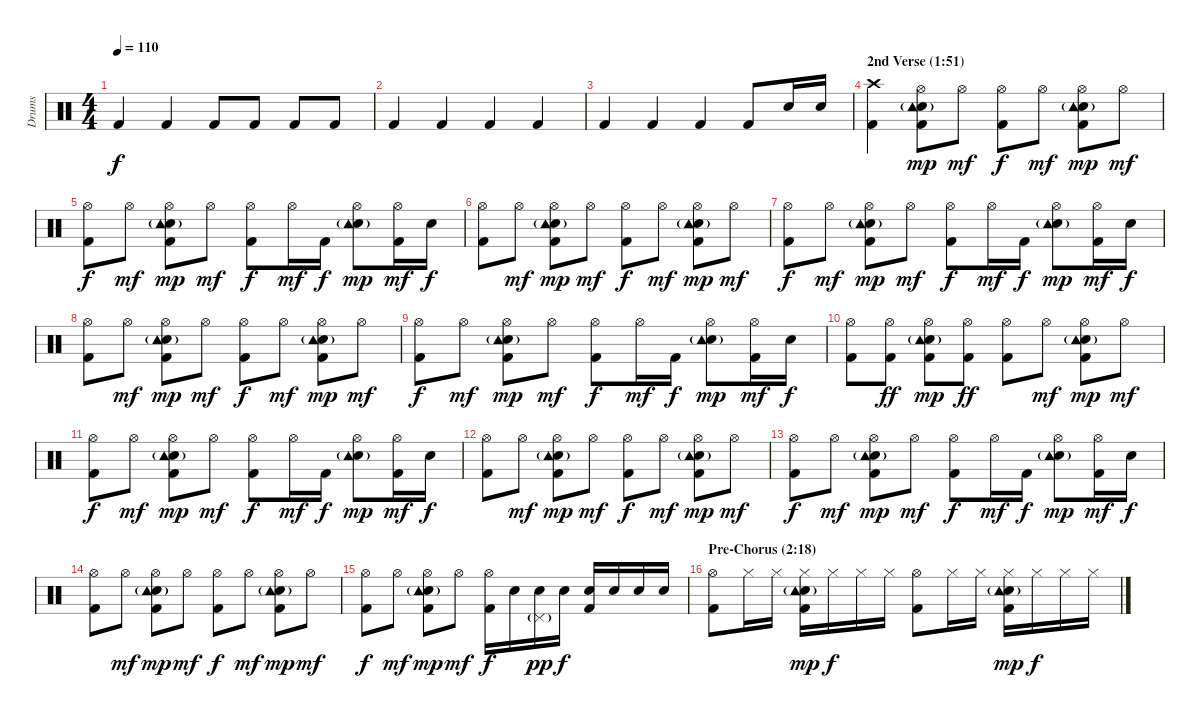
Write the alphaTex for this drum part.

\track ("Drums" "Drums") {instrument percussion}
\staff {score}
\articulation defaults
\ts (4 4)
\tempo 110
\clef neutral
\ks c "Kick (hit) 2".4{dy f} "Kick (hit) 2".4 "Kick (hit) 2".8 "Kick (hit) 2".8 "Kick (hit) 2".8 "Kick (hit) 2".8
|
"Kick (hit) 2".4 "Kick (hit) 2".4 "Kick (hit) 2".4 "Kick (hit) 2".4 |
"Kick (hit) 2".4 "Kick (hit) 2".4 "Kick (hit) 2".4 "Kick (hit) 2".8 "Snare (hit) 2".16 "Snare (hit) 2".16 |
\section ("" "2nd Verse (1:51)")
("Crash high (hit)" "Kick (hit) 2").4 ("Hi-Hat (open)" "Snare (hit) 2" "Tambourine (hit)"{g} "Kick (hit) 2").8{dy mp} "Hi-Hat (open)".8{dy mf} ("Hi-Hat (open)" "Kick (hit) 2").8{dy f} "Hi-Hat (open)".8{dy mf} ("Hi-Hat (open)" "Snare (hit) 2" "Tambourine (hit)"{g} "Kick (hit) 2").8{dy mp} "Hi-Hat (open)".8{dy mf} |
("Hi-Hat (open)" "Kick (hit) 2").8{dy f} "Hi-Hat (open)".8{dy mf} ("Hi-Hat (open)" "Snare (hit) 2" "Tambourine (hit)"{g} "Kick (hit) 2").8{dy mp} "Hi-Hat (open)".8{dy mf} ("Hi-Hat (open)" "Kick (hit) 2").8{dy f} "Hi-Hat (open)".16{dy mf} "Kick (hit) 2".16{dy f} ("Hi-Hat (open)" "Snare (hit) 2" "Tambourine (hit)"{g}).8{dy mp} ("Hi-Hat (open)" "Kick (hit) 2").16{dy mf} "Snare (hit) 2".16{dy f} |
("Hi-Hat (open)" "Kick (hit) 2").8 "Hi-Hat (open)".8{dy mf} ("Hi-Hat (open)" "Snare (hit) 2" "Tambourine (hit)"{g} "Kick (hit) 2").8{dy mp} "Hi-Hat (open)".8{dy mf} ("Hi-Hat (open)" "Kick (hit) 2").8{dy f} "Hi-Hat (open)".8{dy mf} ("Hi-Hat (open)" "Snare (hit) 2" "Tambourine (hit)"{g} "Kick (hit) 2").8{dy mp} "Hi-Hat (open)".8{dy mf} |
("Hi-Hat (open)" "Kick (hit) 2").8{dy f} "Hi-Hat (open)".8{dy mf} ("Hi-Hat (open)" "Snare (hit) 2" "Tambourine (hit)"{g} "Kick (hit) 2").8{dy mp} "Hi-Hat (open)".8{dy mf} ("Hi-Hat (open)" "Kick (hit) 2").8{dy f} "Hi-Hat (open)".16{dy mf} "Kick (hit) 2".16{dy f} ("Hi-Hat (open)" "Snare (hit) 2" "Tambourine (hit)"{g}).8{dy mp} ("Hi-Hat (open)" "Kick (hit) 2").16{dy mf} "Snare (hit) 2".16{dy f} |
("Hi-Hat (open)" "Kick (hit) 2").8 "Hi-Hat (open)".8{dy mf} ("Hi-Hat (open)" "Snare (hit) 2" "Tambourine (hit)"{g} "Kick (hit) 2").8{dy mp} "Hi-Hat (open)".8{dy mf} ("Hi-Hat (open)" "Kick (hit) 2").8{dy f} "Hi-Hat (open)".8{dy mf} ("Hi-Hat (open)" "Snare (hit) 2" "Tambourine (hit)"{g} "Kick (hit) 2").8{dy mp} "Hi-Hat (open)".8{dy mf} |
("Hi-Hat (open)" "Kick (hit) 2").8{dy f} "Hi-Hat (open)".8{dy mf} ("Hi-Hat (open)" "Snare (hit) 2" "Tambourine (hit)"{g} "Kick (hit) 2").8{dy mp} "Hi-Hat (open)".8{dy mf} ("Hi-Hat (open)" "Kick (hit) 2").8{dy f} "Hi-Hat (open)".16{dy mf} "Kick (hit) 2".16{dy f} ("Hi-Hat (open)" "Snare (hit) 2" "Tambourine (hit)"{g}).8{dy mp} ("Hi-Hat (open)" "Kick (hit) 2").16{dy mf} "Snare (hit) 2".16{dy f} |
("Hi-Hat (open)" "Kick (hit) 2").8 ("Hi-Hat (open)" "Kick (hit) 2").8{dy ff} ("Hi-Hat (open)" "Snare (hit) 2" "Tambourine (hit)"{g} "Kick (hit) 2").8{dy mp} ("Hi-Hat (open)" "Kick (hit) 2").8{dy ff} ("Hi-Hat (open)" "Kick (hit) 2").8 "Hi-Hat (open)".8{dy mf} ("Hi-Hat (open)" "Snare (hit) 2" "Tambourine (hit)"{g} "Kick (hit) 2").8{dy mp} "Hi-Hat (open)".8{dy mf} |
("Hi-Hat (open)" "Kick (hit) 2").8{dy f} "Hi-Hat (open)".8{dy mf} ("Hi-Hat (open)" "Snare (hit) 2" "Tambourine (hit)"{g} "Kick (hit) 2").8{dy mp} "Hi-Hat (open)".8{dy mf} ("Hi-Hat (open)" "Kick (hit) 2").8{dy f} "Hi-Hat (open)".16{dy mf} "Kick (hit) 2".16{dy f} ("Hi-Hat (open)" "Snare (hit) 2" "Tambourine (hit)"{g}).8{dy mp} ("Hi-Hat (open)" "Kick (hit) 2").16{dy mf} "Snare (hit) 2".16{dy f} |
("Hi-Hat (open)" "Kick (hit) 2").8 "Hi-Hat (open)".8{dy mf} ("Hi-Hat (open)" "Snare (hit) 2" "Tambourine (hit)"{g} "Kick (hit) 2").8{dy mp} "Hi-Hat (open)".8{dy mf} ("Hi-Hat (open)" "Kick (hit) 2").8{dy f} "Hi-Hat (open)".8{dy mf} ("Hi-Hat (open)" "Snare (hit) 2" "Tambourine (hit)"{g} "Kick (hit) 2").8{dy mp} "Hi-Hat (open)".8{dy mf} |
("Hi-Hat (open)" "Kick (hit) 2").8{dy f} "Hi-Hat (open)".8{dy mf} ("Hi-Hat (open)" "Snare (hit) 2" "Tambourine (hit)"{g} "Kick (hit) 2").8{dy mp} "Hi-Hat (open)".8{dy mf} ("Hi-Hat (open)" "Kick (hit) 2").8{dy f} "Hi-Hat (open)".16{dy mf} "Kick (hit) 2".16{dy f} ("Hi-Hat (open)" "Snare (hit) 2" "Tambourine (hit)"{g}).8{dy mp} ("Hi-Hat (open)" "Kick (hit) 2").16{dy mf} "Snare (hit) 2".16{dy f} |
("Hi-Hat (open)" "Kick (hit) 2").8 "Hi-Hat (open)".8{dy mf} ("Hi-Hat (open)" "Snare (hit) 2" "Tambourine (hit)"{g} "Kick (hit) 2").8{dy mp} "Hi-Hat (open)".8{dy mf} ("Hi-Hat (open)" "Kick (hit) 2").8{dy f} "Hi-Hat (open)".8{dy mf} ("Hi-Hat (open)" "Snare (hit) 2" "Tambourine (hit)"{g} "Kick (hit) 2").8{dy mp} "Hi-Hat (open)".8{dy mf} |
("Hi-Hat (open)" "Kick (hit) 2").8{dy f} "Hi-Hat (open)".8{dy mf} ("Hi-Hat (open)" "Snare (hit) 2" "Tambourine (hit)"{g} "Kick (hit) 2").8{dy mp} "Hi-Hat (open)".8{dy mf} ("Hi-Hat (open)" "Kick (hit) 2").16{dy f} "Snare (hit) 2".16 ("Pedal Hi-Hat (hit)"{g} "Snare (hit) 2").16{dy pp} "Snare (hit) 2".16{dy f} ("Snare (hit) 2" "Kick (hit) 2").16 "Snare (hit) 2".16 "Snare (hit) 2".16 "Snare (hit) 2".16 |
\section ("" "Pre-Chorus (2:18)")
("Hi-Hat (open)" "Kick (hit) 2").8 "Hi-Hat (closed)".16 "Hi-Hat (closed)".16 ("Hi-Hat (closed)" "Snare (hit) 2" "Tambourine (hit)"{g} "Kick (hit) 2").16{dy mp} "Hi-Hat (closed)".16{dy f} "Hi-Hat (closed)".16 "Hi-Hat (closed)".16 ("Hi-Hat (open)" "Kick (hit) 2").8 "Hi-Hat (closed)".16 "Hi-Hat (closed)".16 ("Hi-Hat (closed)" "Snare (hit) 2" "Tambourine (hit)"{g} "Kick (hit) 2").16{dy mp} "Hi-Hat (closed)".16{dy f} "Hi-Hat (closed)".16 "Hi-Hat (closed)".16
